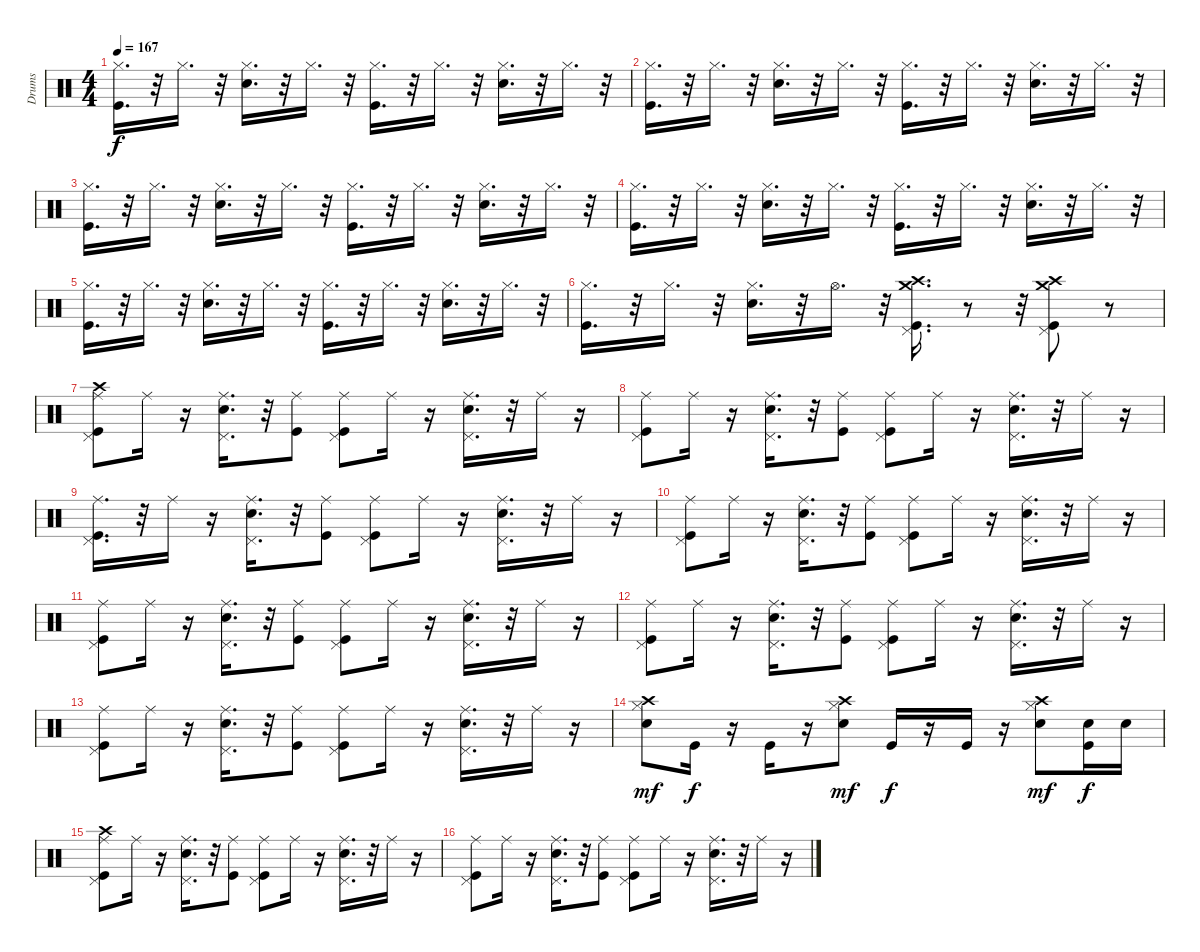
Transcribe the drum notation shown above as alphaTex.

\track ("Drums" "Drums") {instrument percussion}
\staff {score}
\articulation defaults
\ts (4 4)
\tempo 167
\clef neutral
\ks c
("Hi-Hat (closed)" "Kick (hit)").16{d dy f} r.32 "Hi-Hat (closed)".16{d} r.32 ("Hi-Hat (closed)" "Electric Snare (hit)").16{d} r.32 "Hi-Hat (closed)".16{d} r.32 ("Hi-Hat (closed)" "Kick (hit)").16{d} r.32 "Hi-Hat (closed)".16{d} r.32 ("Hi-Hat (closed)" "Electric Snare (hit)").16{d} r.32 "Hi-Hat (closed)".16{d} r.32 |
("Hi-Hat (closed)" "Kick (hit)").16{d} r.32 "Hi-Hat (closed)".16{d} r.32 ("Hi-Hat (closed)" "Electric Snare (hit)").16{d} r.32 "Hi-Hat (closed)".16{d} r.32 ("Hi-Hat (closed)" "Kick (hit)").16{d} r.32 "Hi-Hat (closed)".16{d} r.32 ("Hi-Hat (closed)" "Electric Snare (hit)").16{d} r.32 "Hi-Hat (closed)".16{d} r.32 |
("Hi-Hat (closed)" "Kick (hit)").16{d} r.32 "Hi-Hat (closed)".16{d} r.32 ("Hi-Hat (closed)" "Electric Snare (hit)").16{d} r.32 "Hi-Hat (closed)".16{d} r.32 ("Hi-Hat (closed)" "Kick (hit)").16{d} r.32 "Hi-Hat (closed)".16{d} r.32 ("Hi-Hat (closed)" "Electric Snare (hit)").16{d} r.32 "Hi-Hat (closed)".16{d} r.32 |
("Hi-Hat (closed)" "Kick (hit)").16{d} r.32 "Hi-Hat (closed)".16{d} r.32 ("Hi-Hat (closed)" "Electric Snare (hit)").16{d} r.32 "Hi-Hat (closed)".16{d} r.32 ("Hi-Hat (closed)" "Kick (hit)").16{d} r.32 "Hi-Hat (closed)".16{d} r.32 ("Hi-Hat (closed)" "Electric Snare (hit)").16{d} r.32 "Hi-Hat (closed)".16{d} r.32 |
("Hi-Hat (closed)" "Kick (hit)").16{d} r.32 "Hi-Hat (closed)".16{d} r.32 ("Hi-Hat (closed)" "Electric Snare (hit)").16{d} r.32 "Hi-Hat (closed)".16{d} r.32 ("Hi-Hat (closed)" "Kick (hit)").16{d} r.32 "Hi-Hat (closed)".16{d} r.32 ("Hi-Hat (closed)" "Electric Snare (hit)").16{d} r.32 "Hi-Hat (closed)".16{d} r.32 |
("Hi-Hat (closed)" "Kick (hit)").16{d} r.32 "Hi-Hat (closed)".16{d} r.32 ("Hi-Hat (closed)" "Electric Snare (hit)").16{d} r.32 "Hi-Hat (open)".16{d} r.32 ("Crash medium (hit)" "Pedal Hi-Hat (hit)" "Crash high (hit)" "Kick (hit)").16{d} r.8 r.32 ("Crash medium (hit)" "Pedal Hi-Hat (hit)" "Kick (hit)" "Crash high (hit)").8 r.8 |
("Crash high (hit)" "Pedal Hi-Hat (hit)" "Kick (hit)" "Ride (middle)").8 "Ride (middle)".16 r.16 ("Ride (middle)" "Pedal Hi-Hat (hit)" "Electric Snare (hit)").16{d} r.32 ("Kick (hit)" "Ride (middle)").8 ("Ride (middle)" "Pedal Hi-Hat (hit)" "Kick (hit)").8 "Ride (middle)".16 r.16 ("Ride (middle)" "Pedal Hi-Hat (hit)" "Electric Snare (hit)").16{d} r.32 "Ride (middle)".16 r.16 |
("Ride (middle)" "Kick (hit)" "Pedal Hi-Hat (hit)").8 "Ride (middle)".16 r.16 ("Ride (middle)" "Pedal Hi-Hat (hit)" "Electric Snare (hit)").16{d} r.32 ("Kick (hit)" "Ride (middle)").8 ("Ride (middle)" "Pedal Hi-Hat (hit)" "Kick (hit)").8 "Ride (middle)".16 r.16 ("Ride (middle)" "Pedal Hi-Hat (hit)" "Electric Snare (hit)").16{d} r.32 "Ride (middle)".16 r.16 |
("Kick (hit)" "Ride (middle)" "Pedal Hi-Hat (hit)").16{d} r.32 "Ride (middle)".16 r.16 ("Pedal Hi-Hat (hit)" "Electric Snare (hit)" "Ride (middle)").16{d} r.32 ("Ride (middle)" "Kick (hit)").8 ("Ride (middle)" "Kick (hit)" "Pedal Hi-Hat (hit)").8 "Ride (middle)".16 r.16 ("Ride (middle)" "Pedal Hi-Hat (hit)" "Electric Snare (hit)").16{d} r.32 "Ride (middle)".16 r.16 |
("Kick (hit)" "Ride (middle)" "Pedal Hi-Hat (hit)").8 "Ride (middle)".16 r.16 ("Ride (middle)" "Pedal Hi-Hat (hit)" "Electric Snare (hit)").16{d} r.32 ("Kick (hit)" "Ride (middle)").8 ("Pedal Hi-Hat (hit)" "Kick (hit)" "Ride (middle)").8 "Ride (middle)".16 r.16 ("Ride (middle)" "Pedal Hi-Hat (hit)" "Electric Snare (hit)").16{d} r.32 "Ride (middle)".16 r.16 |
("Kick (hit)" "Pedal Hi-Hat (hit)" "Ride (middle)").8 "Ride (middle)".16 r.16 ("Pedal Hi-Hat (hit)" "Ride (middle)" "Electric Snare (hit)").16{d} r.32 ("Kick (hit)" "Ride (middle)").8 ("Ride (middle)" "Kick (hit)" "Pedal Hi-Hat (hit)").8 "Ride (middle)".16 r.16 ("Pedal Hi-Hat (hit)" "Electric Snare (hit)" "Ride (middle)").16{d} r.32 "Ride (middle)".16 r.16 |
("Pedal Hi-Hat (hit)" "Kick (hit)" "Ride (middle)").8 "Ride (middle)".16 r.16 ("Pedal Hi-Hat (hit)" "Ride (middle)" "Electric Snare (hit)").16{d} r.32 ("Kick (hit)" "Ride (middle)").8 ("Ride (middle)" "Kick (hit)" "Pedal Hi-Hat (hit)").8 "Ride (middle)".16 r.16 ("Ride (middle)" "Electric Snare (hit)" "Pedal Hi-Hat (hit)").16{d} r.32 "Ride (middle)".16 r.16 |
("Kick (hit)" "Ride (middle)" "Pedal Hi-Hat (hit)").8 "Ride (middle)".16 r.16 ("Ride (middle)" "Pedal Hi-Hat (hit)" "Electric Snare (hit)").16{d} r.32 ("Ride (middle)" "Kick (hit)").8 ("Kick (hit)" "Ride (middle)" "Pedal Hi-Hat (hit)").8 "Ride (middle)".16 r.16 ("Electric Snare (hit)" "Ride (middle)" "Pedal Hi-Hat (hit)").16{d} r.32 "Ride (middle)".16 r.16 |
("Crash high (hit)" "Electric Snare (hit)" "Hi-Hat (closed)").8{dy mf} "Kick (hit)".16{dy f} r.16 "Kick (hit)".16 r.16 ("Electric Snare (hit)" "Hi-Hat (closed)" "Crash high (hit)").8{dy mf} "Kick (hit)".16{dy f} r.16 "Kick (hit)".16 r.16 ("Crash high (hit)" "Hi-Hat (closed)" "Electric Snare (hit)").8{dy mf} ("Electric Snare (hit)" "Kick (hit)").16{dy f} "Electric Snare (hit)".16 |
("Crash high (hit)" "Kick (hit)" "Ride (middle)" "Pedal Hi-Hat (hit)").8 "Ride (middle)".16 r.16 ("Ride (middle)" "Pedal Hi-Hat (hit)" "Electric Snare (hit)").16{d} r.32 ("Ride (middle)" "Kick (hit)").8 ("Ride (middle)" "Pedal Hi-Hat (hit)" "Kick (hit)").8 "Ride (middle)".16 r.16 ("Ride (middle)" "Pedal Hi-Hat (hit)" "Electric Snare (hit)").16{d} r.32 "Ride (middle)".16 r.16 |
("Ride (middle)" "Kick (hit)" "Pedal Hi-Hat (hit)").8 "Ride (middle)".16 r.16 ("Pedal Hi-Hat (hit)" "Electric Snare (hit)" "Ride (middle)").16{d} r.32 ("Kick (hit)" "Ride (middle)").8 ("Ride (middle)" "Kick (hit)" "Pedal Hi-Hat (hit)").8 "Ride (middle)".16 r.16 ("Pedal Hi-Hat (hit)" "Electric Snare (hit)" "Ride (middle)").16{d} r.32 "Ride (middle)".16 r.16
